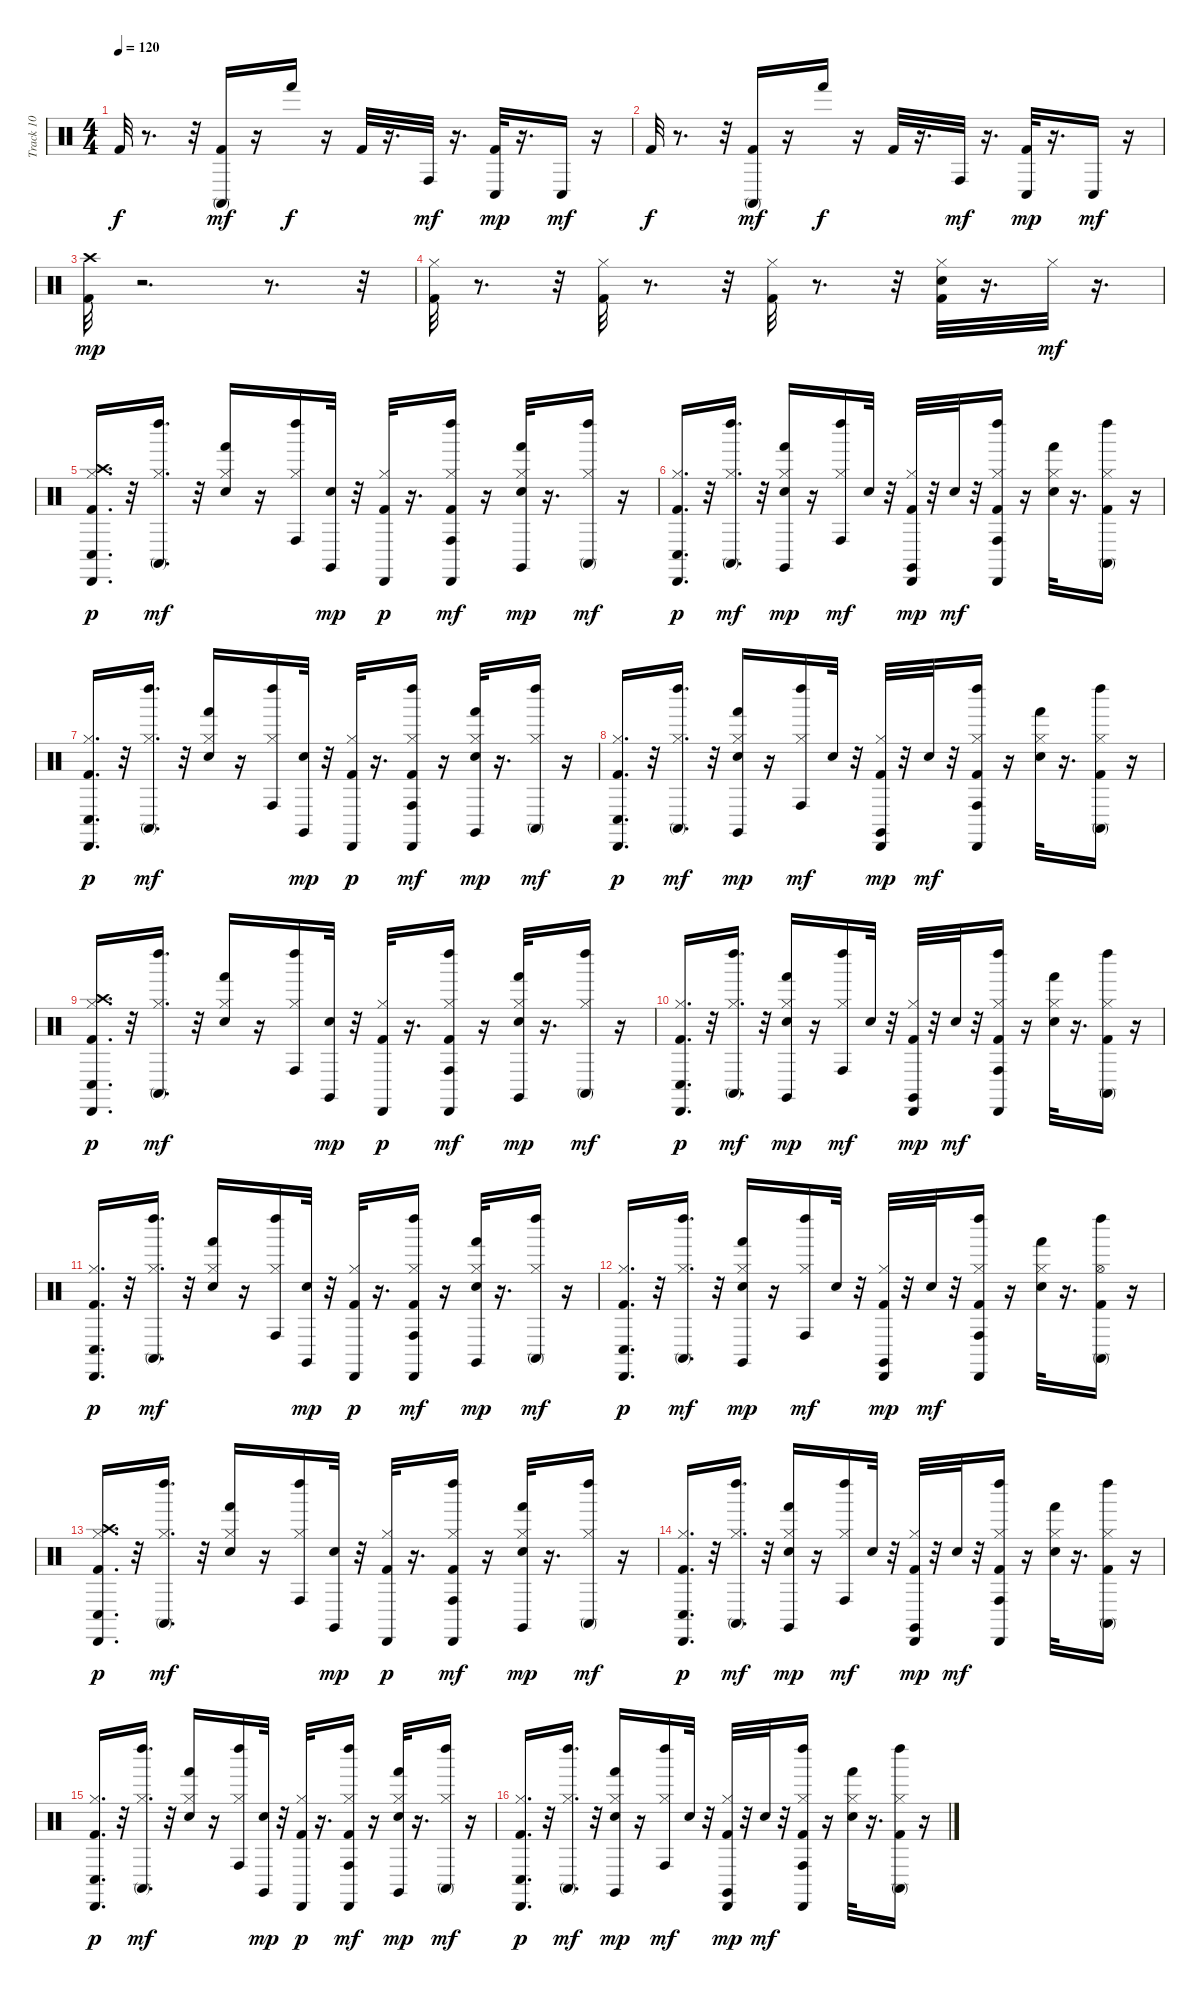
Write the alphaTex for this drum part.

\track ("Track 10" "Track 10") {instrument percussion}
\staff {score}
\articulation defaults
\ts (4 4)
\tempo 120
\clef neutral
\ks c "Kick (hit) 2".32{dy f}
r.8{d} r.32 ("Kick (hit) 2" "Conga high (mute)").16{dy mf} r.16 "Hand (hit)".16{dy f} r.16 "Kick (hit) 2".32 r.16{d} "Conga high (hit)".32{dy mf} r.16{d} ("Kick (hit) 2" "Conga low (hit)").32{dy mp} r.16{d} "Conga low (hit)".16{dy mf} r.16 |
"Kick (hit) 2".32{dy f} r.8{d} r.32 ("Kick (hit) 2" "Conga high (mute)").16{dy mf} r.16 "Hand (hit)".16{dy f} r.16 "Kick (hit) 2".32 r.16{d} "Conga high (hit)".32{dy mf} r.16{d} ("Kick (hit) 2" "Conga low (hit)").32{dy mp} r.16{d} "Conga low (hit)".16{dy mf} r.16 |
("Kick (hit) 2" "Crash high (hit)").32{dy mp} r.2{d} r.8{d} r.32 |
("Kick (hit) 2" "Hi-Hat (closed)").32 r.8{d} r.32 ("Kick (hit) 2" "Hi-Hat (closed)").32 r.8{d} r.32 ("Kick (hit) 2" "Hi-Hat (closed)").32 r.8{d} r.32 ("Kick (hit) 2" "Electric Snare (hit)" "Hi-Hat (closed)").32 r.16{d} "Hi-Hat (closed)".32{dy mf} r.16{d} |
("Kick (hit) 2" "Hi-Hat (closed)" "Crash high (hit)" "Conga low (hit)" "Cabasa (hit)").16{d dy p} r.32 ("Hi-Hat (closed)" "Conga high (mute)" "Left Maraca (hit)").16{d dy mf} r.32 ("Electric Snare (hit)" "Hi-Hat (closed)" "Hand (hit)").16 r.16 ("Hi-Hat (closed)" "Conga high (hit)" "Left Maraca (hit)").16 ("Electric Snare (hit)" "Claves (hit)").32{dy mp} r.32 ("Kick (hit) 2" "Hi-Hat (closed)" "Cabasa (hit)").32{dy p} r.16{d} ("Kick (hit) 2" "Hi-Hat (closed)" "Conga high (hit)" "Cabasa (hit)" "Left Maraca (hit)").16{dy mf} r.16 ("Electric Snare (hit)" "Hi-Hat (closed)" "Hand (hit)" "Claves (hit)").32{dy mp} r.16{d} ("Hi-Hat (closed)" "Conga high (mute)" "Left Maraca (hit)").16{dy mf} r.16 |
("Kick (hit) 2" "Hi-Hat (closed)" "Conga low (hit)" "Cabasa (hit)").16{d dy p} r.32 ("Hi-Hat (closed)" "Conga high (mute)" "Left Maraca (hit)").16{d dy mf} r.32 ("Electric Snare (hit)" "Hi-Hat (closed)" "Hand (hit)" "Claves (hit)").16{dy mp} r.16 ("Hi-Hat (closed)" "Conga high (hit)" "Left Maraca (hit)").16{dy mf} "Electric Snare (hit)".32 r.32 ("Kick (hit) 2" "Hi-Hat (closed)" "Cabasa (hit)" "Claves (hit)").32{dy mp} r.32 "Electric Snare (hit)".32{dy mf} r.32 ("Kick (hit) 2" "Hi-Hat (closed)" "Conga high (hit)" "Cabasa (hit)" "Left Maraca (hit)").16 r.16 ("Electric Snare (hit)" "Hi-Hat (closed)" "Hand (hit)").32 r.16{d} ("Kick (hit) 2" "Hi-Hat (closed)" "Conga high (mute)" "Left Maraca (hit)").16 r.16 |
("Kick (hit) 2" "Hi-Hat (closed)" "Conga low (hit)" "Cabasa (hit)").16{d dy p} r.32 ("Hi-Hat (closed)" "Conga high (mute)" "Left Maraca (hit)").16{d dy mf} r.32 ("Electric Snare (hit)" "Hi-Hat (closed)" "Hand (hit)").16 r.16 ("Hi-Hat (closed)" "Conga high (hit)" "Left Maraca (hit)").16 ("Electric Snare (hit)" "Claves (hit)").32{dy mp} r.32 ("Kick (hit) 2" "Hi-Hat (closed)" "Cabasa (hit)").32{dy p} r.16{d} ("Kick (hit) 2" "Hi-Hat (closed)" "Conga high (hit)" "Cabasa (hit)" "Left Maraca (hit)").16{dy mf} r.16 ("Electric Snare (hit)" "Hi-Hat (closed)" "Hand (hit)" "Claves (hit)").32{dy mp} r.16{d} ("Hi-Hat (closed)" "Conga high (mute)" "Left Maraca (hit)").16{dy mf} r.16 |
("Kick (hit) 2" "Hi-Hat (closed)" "Conga low (hit)" "Cabasa (hit)").16{d dy p} r.32 ("Hi-Hat (closed)" "Conga high (mute)" "Left Maraca (hit)").16{d dy mf} r.32 ("Electric Snare (hit)" "Hi-Hat (closed)" "Hand (hit)" "Claves (hit)").16{dy mp} r.16 ("Hi-Hat (closed)" "Conga high (hit)" "Left Maraca (hit)").16{dy mf} "Electric Snare (hit)".32 r.32 ("Kick (hit) 2" "Hi-Hat (closed)" "Cabasa (hit)" "Claves (hit)").32{dy mp} r.32 "Electric Snare (hit)".32{dy mf} r.32 ("Kick (hit) 2" "Hi-Hat (closed)" "Conga high (hit)" "Cabasa (hit)" "Left Maraca (hit)").16 r.16 ("Electric Snare (hit)" "Hi-Hat (closed)" "Hand (hit)").32 r.16{d} ("Kick (hit) 2" "Hi-Hat (closed)" "Conga high (mute)" "Left Maraca (hit)").16 r.16 |
("Kick (hit) 2" "Hi-Hat (closed)" "Crash high (hit)" "Conga low (hit)" "Cabasa (hit)").16{d dy p} r.32 ("Hi-Hat (closed)" "Conga high (mute)" "Left Maraca (hit)").16{d dy mf} r.32 ("Electric Snare (hit)" "Hi-Hat (closed)" "Hand (hit)").16 r.16 ("Hi-Hat (closed)" "Conga high (hit)" "Left Maraca (hit)").16 ("Electric Snare (hit)" "Claves (hit)").32{dy mp} r.32 ("Kick (hit) 2" "Hi-Hat (closed)" "Cabasa (hit)").32{dy p} r.16{d} ("Kick (hit) 2" "Hi-Hat (closed)" "Conga high (hit)" "Cabasa (hit)" "Left Maraca (hit)").16{dy mf} r.16 ("Electric Snare (hit)" "Hi-Hat (closed)" "Hand (hit)" "Claves (hit)").32{dy mp} r.16{d} ("Hi-Hat (closed)" "Conga high (mute)" "Left Maraca (hit)").16{dy mf} r.16 |
("Kick (hit) 2" "Hi-Hat (closed)" "Conga low (hit)" "Cabasa (hit)").16{d dy p} r.32 ("Hi-Hat (closed)" "Conga high (mute)" "Left Maraca (hit)").16{d dy mf} r.32 ("Electric Snare (hit)" "Hi-Hat (closed)" "Hand (hit)" "Claves (hit)").16{dy mp} r.16 ("Hi-Hat (closed)" "Conga high (hit)" "Left Maraca (hit)").16{dy mf} "Electric Snare (hit)".32 r.32 ("Kick (hit) 2" "Hi-Hat (closed)" "Cabasa (hit)" "Claves (hit)").32{dy mp} r.32 "Electric Snare (hit)".32{dy mf} r.32 ("Kick (hit) 2" "Hi-Hat (closed)" "Conga high (hit)" "Cabasa (hit)" "Left Maraca (hit)").16 r.16 ("Electric Snare (hit)" "Hi-Hat (closed)" "Hand (hit)").32 r.16{d} ("Kick (hit) 2" "Hi-Hat (closed)" "Conga high (mute)" "Left Maraca (hit)").16 r.16 |
("Kick (hit) 2" "Hi-Hat (closed)" "Conga low (hit)" "Cabasa (hit)").16{d dy p} r.32 ("Hi-Hat (closed)" "Conga high (mute)" "Left Maraca (hit)").16{d dy mf} r.32 ("Electric Snare (hit)" "Hi-Hat (closed)" "Hand (hit)").16 r.16 ("Hi-Hat (closed)" "Conga high (hit)" "Left Maraca (hit)").16 ("Electric Snare (hit)" "Claves (hit)").32{dy mp} r.32 ("Kick (hit) 2" "Hi-Hat (closed)" "Cabasa (hit)").32{dy p} r.16{d} ("Kick (hit) 2" "Hi-Hat (closed)" "Conga high (hit)" "Cabasa (hit)" "Left Maraca (hit)").16{dy mf} r.16 ("Electric Snare (hit)" "Hi-Hat (closed)" "Hand (hit)" "Claves (hit)").32{dy mp} r.16{d} ("Hi-Hat (closed)" "Conga high (mute)" "Left Maraca (hit)").16{dy mf} r.16 |
("Kick (hit) 2" "Hi-Hat (closed)" "Conga low (hit)" "Cabasa (hit)").16{d dy p} r.32 ("Hi-Hat (closed)" "Conga high (mute)" "Left Maraca (hit)").16{d dy mf} r.32 ("Electric Snare (hit)" "Hi-Hat (closed)" "Hand (hit)" "Claves (hit)").16{dy mp} r.16 ("Hi-Hat (closed)" "Conga high (hit)" "Left Maraca (hit)").16{dy mf} "Electric Snare (hit)".32 r.32 ("Kick (hit) 2" "Hi-Hat (closed)" "Cabasa (hit)" "Claves (hit)").32{dy mp} r.32 "Electric Snare (hit)".32{dy mf} r.32 ("Kick (hit) 2" "Hi-Hat (closed)" "Conga high (hit)" "Cabasa (hit)" "Left Maraca (hit)").16 r.16 ("Electric Snare (hit)" "Hi-Hat (closed)" "Hand (hit)").32 r.16{d} ("Kick (hit) 2" "Hi-Hat (open)" "Conga high (mute)" "Left Maraca (hit)").16 r.16 |
("Kick (hit) 2" "Hi-Hat (closed)" "Crash high (hit)" "Conga low (hit)" "Cabasa (hit)").16{d dy p} r.32 ("Hi-Hat (closed)" "Conga high (mute)" "Left Maraca (hit)").16{d dy mf} r.32 ("Electric Snare (hit)" "Hi-Hat (closed)" "Hand (hit)").16 r.16 ("Hi-Hat (closed)" "Conga high (hit)" "Left Maraca (hit)").16 ("Electric Snare (hit)" "Claves (hit)").32{dy mp} r.32 ("Kick (hit) 2" "Hi-Hat (closed)" "Cabasa (hit)").32{dy p} r.16{d} ("Kick (hit) 2" "Hi-Hat (closed)" "Conga high (hit)" "Cabasa (hit)" "Left Maraca (hit)").16{dy mf} r.16 ("Electric Snare (hit)" "Hi-Hat (closed)" "Hand (hit)" "Claves (hit)").32{dy mp} r.16{d} ("Hi-Hat (closed)" "Conga high (mute)" "Left Maraca (hit)").16{dy mf} r.16 |
("Kick (hit) 2" "Hi-Hat (closed)" "Conga low (hit)" "Cabasa (hit)").16{d dy p} r.32 ("Hi-Hat (closed)" "Conga high (mute)" "Left Maraca (hit)").16{d dy mf} r.32 ("Electric Snare (hit)" "Hi-Hat (closed)" "Hand (hit)" "Claves (hit)").16{dy mp} r.16 ("Hi-Hat (closed)" "Conga high (hit)" "Left Maraca (hit)").16{dy mf} "Electric Snare (hit)".32 r.32 ("Kick (hit) 2" "Hi-Hat (closed)" "Cabasa (hit)" "Claves (hit)").32{dy mp} r.32 "Electric Snare (hit)".32{dy mf} r.32 ("Kick (hit) 2" "Hi-Hat (closed)" "Conga high (hit)" "Cabasa (hit)" "Left Maraca (hit)").16 r.16 ("Electric Snare (hit)" "Hi-Hat (closed)" "Hand (hit)").32 r.16{d} ("Kick (hit) 2" "Hi-Hat (closed)" "Conga high (mute)" "Left Maraca (hit)").16 r.16 |
("Kick (hit) 2" "Hi-Hat (closed)" "Conga low (hit)" "Cabasa (hit)").16{d dy p} r.32 ("Hi-Hat (closed)" "Conga high (mute)" "Left Maraca (hit)").16{d dy mf} r.32 ("Electric Snare (hit)" "Hi-Hat (closed)" "Hand (hit)").16 r.16 ("Hi-Hat (closed)" "Conga high (hit)" "Left Maraca (hit)").16 ("Electric Snare (hit)" "Claves (hit)").32{dy mp} r.32 ("Kick (hit) 2" "Hi-Hat (closed)" "Cabasa (hit)").32{dy p} r.16{d} ("Kick (hit) 2" "Hi-Hat (closed)" "Conga high (hit)" "Cabasa (hit)" "Left Maraca (hit)").16{dy mf} r.16 ("Electric Snare (hit)" "Hi-Hat (closed)" "Hand (hit)" "Claves (hit)").32{dy mp} r.16{d} ("Hi-Hat (closed)" "Conga high (mute)" "Left Maraca (hit)").16{dy mf} r.16 |
("Kick (hit) 2" "Hi-Hat (closed)" "Conga low (hit)" "Cabasa (hit)").16{d dy p} r.32 ("Hi-Hat (closed)" "Conga high (mute)" "Left Maraca (hit)").16{d dy mf} r.32 ("Electric Snare (hit)" "Hi-Hat (closed)" "Hand (hit)" "Claves (hit)").16{dy mp} r.16 ("Hi-Hat (closed)" "Conga high (hit)" "Left Maraca (hit)").16{dy mf} "Electric Snare (hit)".32 r.32 ("Kick (hit) 2" "Hi-Hat (closed)" "Cabasa (hit)" "Claves (hit)").32{dy mp} r.32 "Electric Snare (hit)".32{dy mf} r.32 ("Kick (hit) 2" "Hi-Hat (closed)" "Conga high (hit)" "Cabasa (hit)" "Left Maraca (hit)").16 r.16 ("Electric Snare (hit)" "Hi-Hat (closed)" "Hand (hit)").32 r.16{d} ("Kick (hit) 2" "Hi-Hat (closed)" "Conga high (mute)" "Left Maraca (hit)").16 r.16
